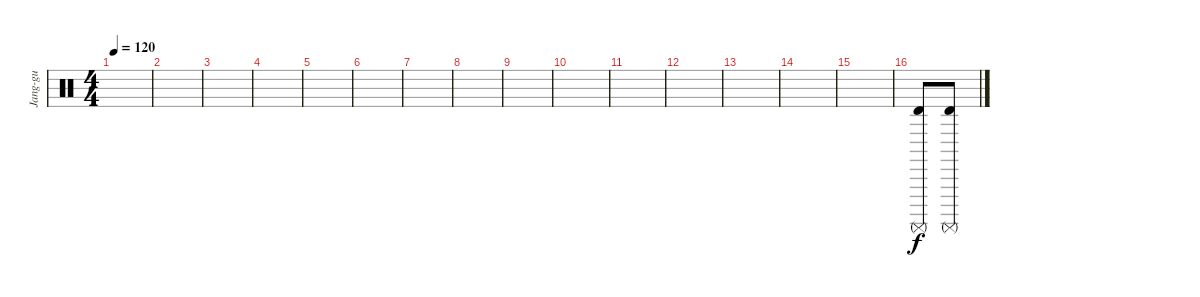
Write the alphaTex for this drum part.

\track ("Jang-gu" "Jang-gu") {instrument percussion}
\staff {score}
\articulation defaults
\ts (4 4)
\tempo 120
\clef neutral
\ks c
|
|
|
|
|
|
|
|
|
|
|
|
|
|
|
("Timbale high (hit)" "Surdo (mute)").8 ("Timbale high (hit)" "Surdo (mute)").8
